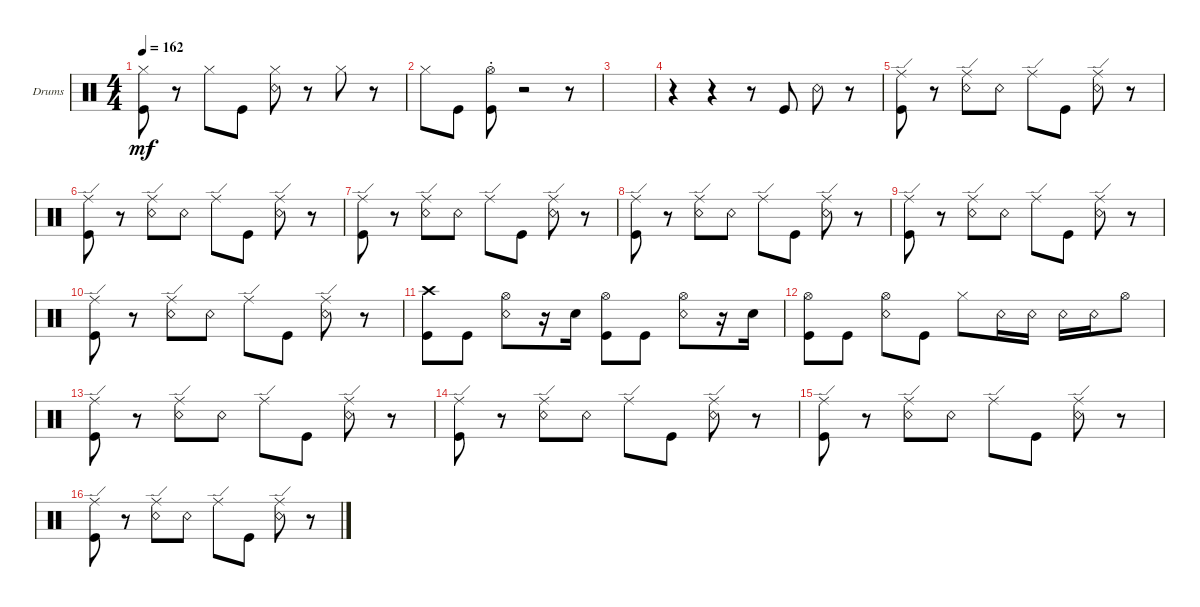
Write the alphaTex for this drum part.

\defaultSystemsLayout 4
\bracketExtendMode groupsimilarinstruments
\firstSystemTrackNameOrientation horizontal
\otherSystemsTrackNameOrientation horizontal
\track ("Drumkit" "Drums") {instrument percussion}
\staff {score}
\articulation defaults
\ts (4 4)
\tempo 162
\clef neutral
\ks c
("Kick (hit)" "Hi-Hat (closed)").8{dy mf} r.8 "Hi-Hat (closed)".8 "Kick (hit)".8 ("Snare (rim shot)" "Hi-Hat (closed)").8 r.8 "Hi-Hat (closed)".8 r.8 |
"Hi-Hat (closed)".8 "Kick (hit)".8 ("Kick (hit)" "Hi-Hat (open)"{st}).8 r.2 r.8 |
|
r.4 r.4 r.8 "Kick (hit)".8 "Snare (rim shot)".8 r.8 |
("Ride (edge)" "Kick (hit)").8 r.8 ("Ride (edge)" "Snare (rim shot)").8 "Snare (rim shot)".8 "Ride (edge)".8 "Kick (hit)".8 ("Snare (rim shot)" "Ride (edge)").8 r.8 |
("Ride (edge)" "Kick (hit)").8 r.8 ("Ride (edge)" "Snare (rim shot)").8 "Snare (rim shot)".8 "Ride (edge)".8 "Kick (hit)".8 ("Snare (rim shot)" "Ride (edge)").8 r.8 |
("Ride (edge)" "Kick (hit)").8 r.8 ("Ride (edge)" "Snare (rim shot)").8 "Snare (rim shot)".8 "Ride (edge)".8 "Kick (hit)".8 ("Snare (rim shot)" "Ride (edge)").8 r.8 |
("Ride (edge)" "Kick (hit)").8 r.8 ("Ride (edge)" "Snare (rim shot)").8 "Snare (rim shot)".8 "Ride (edge)".8 "Kick (hit)".8 ("Snare (rim shot)" "Ride (edge)").8 r.8 |
("Ride (edge)" "Kick (hit)").8 r.8 ("Ride (edge)" "Snare (rim shot)").8 "Snare (rim shot)".8 "Ride (edge)".8 "Kick (hit)".8 ("Snare (rim shot)" "Ride (edge)").8 r.8 |
("Ride (edge)" "Kick (hit)").8 r.8 ("Ride (edge)" "Snare (rim shot)").8 "Snare (rim shot)".8 "Ride (edge)".8 "Kick (hit)".8 ("Snare (rim shot)" "Ride (edge)").8 r.8 |
("Kick (hit)" "Crash high (hit)").8 "Kick (hit)".8 ("Snare (rim shot)" "Hi-Hat (open)").8 r.16 "Snare (hit) 2".16 ("Kick (hit)" "Hi-Hat (open)").8 "Kick (hit)".8 ("Snare (rim shot)" "Hi-Hat (open)").8 r.16 "Snare (hit) 2".16 |
("Kick (hit)" "Hi-Hat (open)").8 "Kick (hit)".8 ("Snare (rim shot)" "Hi-Hat (open)").8 "Kick (hit)".8 "Hi-Hat (closed)".8 "Snare (rim shot)".16 "Snare (rim shot)".16 "Snare (rim shot)".16 "Snare (rim shot)".16 "Hi-Hat (open)".8 |
("Ride (edge)" "Kick (hit)").8 r.8 ("Ride (edge)" "Snare (rim shot)").8 "Snare (rim shot)".8 "Ride (edge)".8 "Kick (hit)".8 ("Snare (rim shot)" "Ride (edge)").8 r.8 |
("Ride (edge)" "Kick (hit)").8 r.8 ("Ride (edge)" "Snare (rim shot)").8 "Snare (rim shot)".8 "Ride (edge)".8 "Kick (hit)".8 ("Snare (rim shot)" "Ride (edge)").8 r.8 |
("Ride (edge)" "Kick (hit)").8 r.8 ("Ride (edge)" "Snare (rim shot)").8 "Snare (rim shot)".8 "Ride (edge)".8 "Kick (hit)".8 ("Snare (rim shot)" "Ride (edge)").8 r.8 |
("Ride (edge)" "Kick (hit)").8 r.8 ("Ride (edge)" "Snare (rim shot)").8 "Snare (rim shot)".8 "Ride (edge)".8 "Kick (hit)".8 ("Snare (rim shot)" "Ride (edge)").8 r.8
